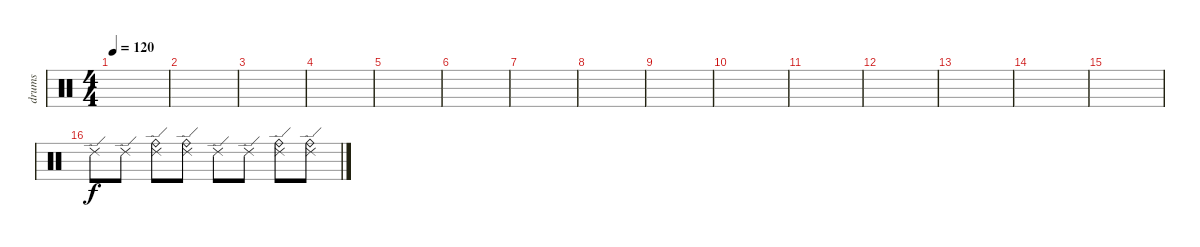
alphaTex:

\track ("drums" "drums") {instrument percussion}
\staff {score}
\articulation defaults
\ts (4 4)
\tempo 120
\clef neutral
\ks c
|
|
|
|
|
|
|
|
|
|
|
|
|
|
|
"Ride (edge) 2".8 "Ride (edge) 2".8 ("Ride (bell)" "Ride (edge) 2").8 ("Ride (bell)" "Ride (edge) 2").8 "Ride (edge) 2".8 "Ride (edge) 2".8 ("Ride (bell)" "Ride (edge) 2").8 ("Ride (bell)" "Ride (edge) 2").8
